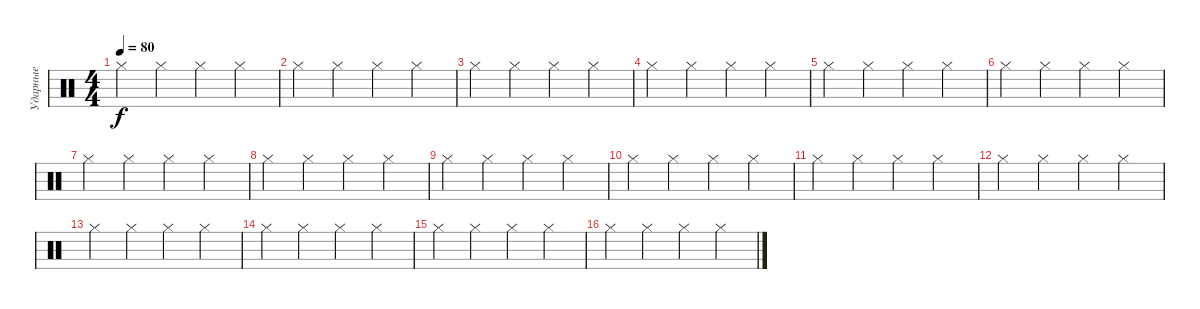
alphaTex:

\track ("Ударные" "Ударные") {instrument percussion}
\staff {score}
\articulation defaults
\ts (4 4)
\tempo 80
\clef neutral
\ks c "Hi-Hat (closed)".4{dy f} "Hi-Hat (closed)".4 "Hi-Hat (closed)".4 "Hi-Hat (closed)".4
|
"Hi-Hat (closed)".4 "Hi-Hat (closed)".4 "Hi-Hat (closed)".4 "Hi-Hat (closed)".4 |
"Hi-Hat (closed)".4 "Hi-Hat (closed)".4 "Hi-Hat (closed)".4 "Hi-Hat (closed)".4 |
"Hi-Hat (closed)".4 "Hi-Hat (closed)".4 "Hi-Hat (closed)".4 "Hi-Hat (closed)".4 |
"Hi-Hat (closed)".4 "Hi-Hat (closed)".4 "Hi-Hat (closed)".4 "Hi-Hat (closed)".4 |
"Hi-Hat (closed)".4 "Hi-Hat (closed)".4 "Hi-Hat (closed)".4 "Hi-Hat (closed)".4 |
"Hi-Hat (closed)".4 "Hi-Hat (closed)".4 "Hi-Hat (closed)".4 "Hi-Hat (closed)".4 |
"Hi-Hat (closed)".4 "Hi-Hat (closed)".4 "Hi-Hat (closed)".4 "Hi-Hat (closed)".4 |
"Hi-Hat (closed)".4 "Hi-Hat (closed)".4 "Hi-Hat (closed)".4 "Hi-Hat (closed)".4 |
"Hi-Hat (closed)".4 "Hi-Hat (closed)".4 "Hi-Hat (closed)".4 "Hi-Hat (closed)".4 |
"Hi-Hat (closed)".4 "Hi-Hat (closed)".4 "Hi-Hat (closed)".4 "Hi-Hat (closed)".4 |
"Hi-Hat (closed)".4 "Hi-Hat (closed)".4 "Hi-Hat (closed)".4 "Hi-Hat (closed)".4 |
"Hi-Hat (closed)".4 "Hi-Hat (closed)".4 "Hi-Hat (closed)".4 "Hi-Hat (closed)".4 |
"Hi-Hat (closed)".4 "Hi-Hat (closed)".4 "Hi-Hat (closed)".4 "Hi-Hat (closed)".4 |
"Hi-Hat (closed)".4 "Hi-Hat (closed)".4 "Hi-Hat (closed)".4 "Hi-Hat (closed)".4 |
"Hi-Hat (closed)".4 "Hi-Hat (closed)".4 "Hi-Hat (closed)".4 "Hi-Hat (closed)".4
